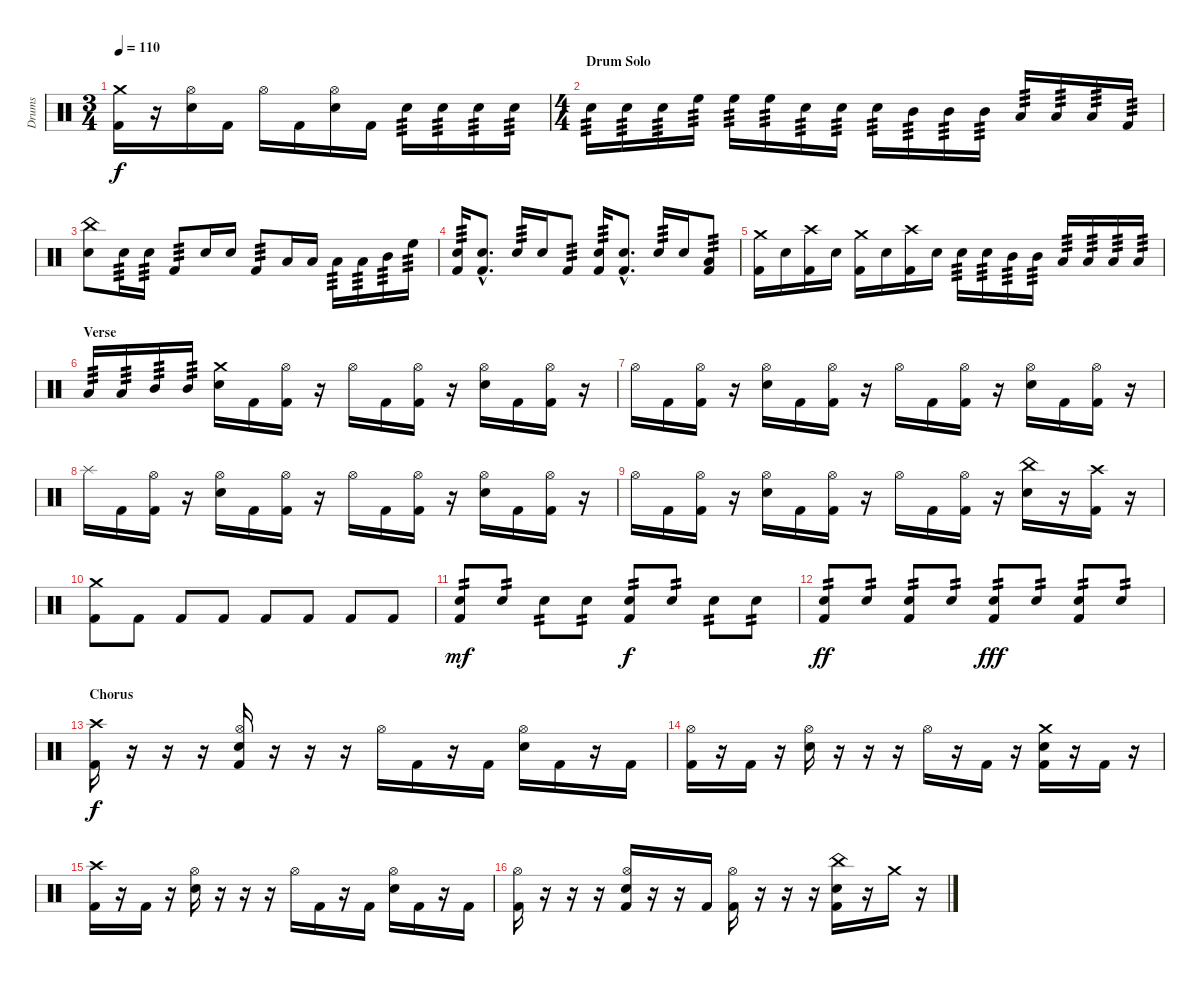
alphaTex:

\track ("Drums" "Drums") {instrument percussion}
\staff {score}
\articulation defaults
\ts (3 4)
\tempo 110
\clef neutral
\ks c
("Crash medium (hit)" "Kick (hit) 2").16{dy f} r.16 ("Hi-Hat (open)" "Snare (hit) 2").16 "Kick (hit) 2".16 "Hi-Hat (open)".16 "Kick (hit) 2".16 ("Hi-Hat (open)" "Snare (hit) 2").16 "Kick (hit) 2".16 "Snare (hit) 2".16{tp 3} "Snare (hit) 2".16{tp 3} "Snare (hit) 2".16{tp 3} "Snare (hit) 2".16{tp 3} |
\ts (4 4)
\section ("" "Drum Solo")
"Snare (hit) 2".16{tp 3} "Snare (hit) 2".16{tp 3} "Snare (hit) 2".16{tp 3} "High Floor Tom (hit)".16{tp 3} "High Floor Tom (hit)".16{tp 3} "High Floor Tom (hit)".16{tp 3} "Snare (hit) 2".16{tp 3} "Snare (hit) 2".16{tp 3} "Snare (hit) 2".16{tp 3} "Mid Tom (hit)".16{tp 3} "Mid Tom (hit)".16{tp 3} "Mid Tom (hit)".16{tp 3} "Low Tom (hit)".16{tp 3} "Low Tom (hit)".16{tp 3} "Low Tom (hit)".16{tp 3} "Kick (hit) 2".16{tp 3} |
("China (hit)" "Snare (hit) 2").8 "Snare (hit) 2".16{tp 3} "Snare (hit) 2".16{tp 3} "Kick (hit) 2".8{tp 3} "Snare (hit) 2".16 "Snare (hit) 2".16 "Kick (hit) 2".8{tp 3} "Low Tom (hit)".16 "Low Tom (hit)".16 "Low Floor Tom (hit)".16{tp 3} "Low Tom (hit)".16{tp 3} "Mid Tom (hit)".16{tp 3} "High Floor Tom (hit)".16{tp 3} |
("Snare (hit) 2" "Kick (hit) 2").16{tp 3} ("Snare (hit) 2"{hac} "Kick (hit) 2"{hac}).8{d} "Snare (hit) 2".16{tp 3} "Snare (hit) 2".16 "Kick (hit) 2".8{tp 3} ("Snare (hit) 2" "Kick (hit) 2").16{tp 3} ("Snare (hit) 2"{hac} "Kick (hit) 2"{hac}).8{d} "Snare (hit) 2".16{tp 3} "Snare (hit) 2".16 ("Low Tom (hit)" "Kick (hit) 2").8{tp 3} |
("Crash medium (hit)" "Kick (hit) 2").16 "Snare (hit) 2".16 ("Crash high (hit)" "Kick (hit) 2").16 "Snare (hit) 2".16 ("Crash medium (hit)" "Kick (hit) 2").16 "Snare (hit) 2".16 ("Crash high (hit)" "Kick (hit) 2").16 "Snare (hit) 2".16 "Snare (hit) 2".16{tp 3} "Snare (hit) 2".16{tp 3} "Mid Tom (hit)".16{tp 3} "Mid Tom (hit)".16{tp 3} "Low Tom (hit)".16{tp 3} "Low Tom (hit)".16{tp 3} "Low Floor Tom (hit)".16{tp 3} "Low Floor Tom (hit)".16{tp 3} |
\section ("" "Verse")
"Low Tom (hit)".16{tp 3} "Low Tom (hit)".16{tp 3} "Mid Tom (hit)".16{tp 3} "Mid Tom (hit)".16{tp 3} ("Crash medium (hit)" "Snare (hit) 2").16 "Kick (hit) 2".16 ("Hi-Hat (open)" "Kick (hit) 2").16 r.16 "Hi-Hat (open)".16 "Kick (hit) 2".16 ("Hi-Hat (open)" "Kick (hit) 2").16 r.16 ("Hi-Hat (open)" "Snare (hit) 2").16 "Kick (hit) 2".16 ("Hi-Hat (open)" "Kick (hit) 2").16 r.16 |
"Hi-Hat (open)".16 "Kick (hit) 2".16 ("Hi-Hat (open)" "Kick (hit) 2").16 r.16 ("Hi-Hat (open)" "Snare (hit) 2").16 "Kick (hit) 2".16 ("Hi-Hat (open)" "Kick (hit) 2").16 r.16 "Hi-Hat (open)".16 "Kick (hit) 2".16 ("Hi-Hat (open)" "Kick (hit) 2").16 r.16 ("Hi-Hat (open)" "Snare (hit) 2").16 "Kick (hit) 2".16 ("Hi-Hat (open)" "Kick (hit) 2").16 r.16 |
"Splash (hit)".16 "Kick (hit) 2".16 ("Hi-Hat (open)" "Kick (hit) 2").16 r.16 ("Hi-Hat (open)" "Snare (hit) 2").16 "Kick (hit) 2".16 ("Hi-Hat (open)" "Kick (hit) 2").16 r.16 "Hi-Hat (open)".16 "Kick (hit) 2".16 ("Hi-Hat (open)" "Kick (hit) 2").16 r.16 ("Hi-Hat (open)" "Snare (hit) 2").16 "Kick (hit) 2".16 ("Hi-Hat (open)" "Kick (hit) 2").16 r.16 |
"Hi-Hat (open)".16 "Kick (hit) 2".16 ("Hi-Hat (open)" "Kick (hit) 2").16 r.16 ("Hi-Hat (open)" "Snare (hit) 2").16 "Kick (hit) 2".16 ("Hi-Hat (open)" "Kick (hit) 2").16 r.16 "Hi-Hat (open)".16 "Kick (hit) 2".16 ("Hi-Hat (open)" "Kick (hit) 2").16 r.16 ("China (hit)" "Snare (hit) 2").16 r.16 ("Crash high (hit)" "Kick (hit) 2").16 r.16 |
("Crash medium (hit)" "Kick (hit) 2").8 "Kick (hit) 2".8 "Kick (hit) 2".8 "Kick (hit) 2".8 "Kick (hit) 2".8 "Kick (hit) 2".8 "Kick (hit) 2".8 "Kick (hit) 2".8 |
("Snare (hit) 2" "Kick (hit) 2").8{tp 2 dy mf} "Snare (hit) 2".8{tp 2} "Snare (hit) 2".8{tp 2} "Snare (hit) 2".8{tp 2} ("Snare (hit) 2" "Kick (hit) 2").8{tp 2 dy f} "Snare (hit) 2".8{tp 2} "Snare (hit) 2".8{tp 2} "Snare (hit) 2".8{tp 2} |
("Snare (hit) 2" "Kick (hit) 2").8{tp 2 dy ff} "Snare (hit) 2".8{tp 2} ("Snare (hit) 2" "Kick (hit) 2").8{tp 2} "Snare (hit) 2".8{tp 2} ("Snare (hit) 2" "Kick (hit) 2").8{tp 2 dy fff} "Snare (hit) 2".8{tp 2} ("Snare (hit) 2" "Kick (hit) 2").8{tp 2} "Snare (hit) 2".8{tp 2} |
\section ("" "Chorus")
("Crash high (hit)" "Kick (hit) 2").16{dy f} r.16 r.16 r.16 ("Hi-Hat (open)" "Snare (hit) 2" "Kick (hit) 2").16 r.16 r.16 r.16 "Hi-Hat (open)".16 "Kick (hit) 2".16 r.16 "Kick (hit) 2".16 ("Hi-Hat (open)" "Snare (hit) 2").16 "Kick (hit) 2".16 r.16 "Kick (hit) 2".16 |
("Hi-Hat (open)" "Kick (hit) 2").16 r.16 "Kick (hit) 2".16 r.16 ("Hi-Hat (open)" "Snare (hit) 2").16 r.16 r.16 r.16 "Hi-Hat (open)".16 r.16 "Kick (hit) 2".16 r.16 ("Crash medium (hit)" "Snare (hit) 2" "Kick (hit) 2").16 r.16 "Kick (hit) 2".16 r.16 |
("Crash high (hit)" "Kick (hit) 2").16 r.16 "Kick (hit) 2".16 r.16 ("Hi-Hat (open)" "Snare (hit) 2").16 r.16 r.16 r.16 "Hi-Hat (open)".16 "Kick (hit) 2".16 r.16 "Kick (hit) 2".16 ("Hi-Hat (open)" "Snare (hit) 2").16 "Kick (hit) 2".16 r.16 "Kick (hit) 2".16 |
("Hi-Hat (open)" "Kick (hit) 2").16 r.16 r.16 r.16 ("Hi-Hat (open)" "Snare (hit) 2" "Kick (hit) 2").16 r.16 r.16 "Kick (hit) 2".16 ("Hi-Hat (open)" "Kick (hit) 2").16 r.16 r.16 r.16 ("China (hit)" "Snare (hit) 2" "Kick (hit) 2").16 r.16 "Crash medium (hit)".16 r.16
